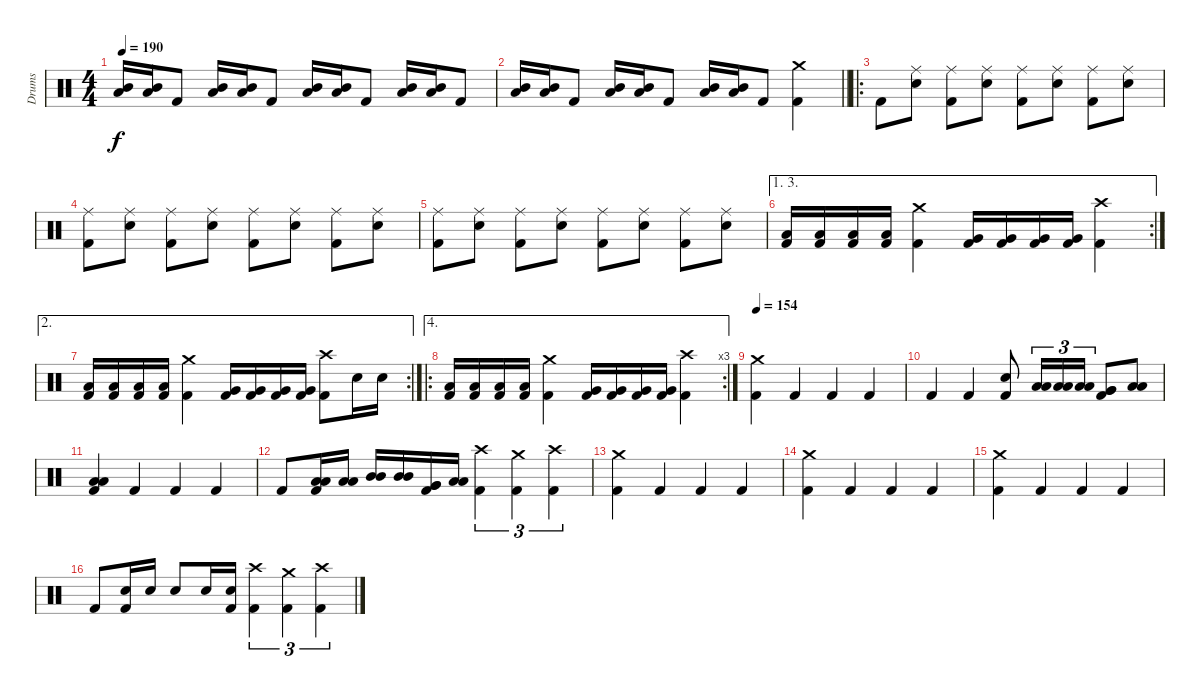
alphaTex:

\track ("Drums" "Drums") {instrument percussion}
\staff {score}
\articulation defaults
\ts (4 4)
\tempo 190
\clef neutral
\ks c
("Low Tom (hit)" "Mid Tom (hit)").16{dy f} ("Low Tom (hit)" "Mid Tom (hit)").16 "Kick (hit) 2".8 ("Low Tom (hit)" "Mid Tom (hit)").16 ("Low Tom (hit)" "Mid Tom (hit)").16 "Kick (hit) 2".8 ("Low Tom (hit)" "Mid Tom (hit)").16 ("Low Tom (hit)" "Mid Tom (hit)").16 "Kick (hit) 2".8 ("Low Tom (hit)" "Mid Tom (hit)").16 ("Low Tom (hit)" "Mid Tom (hit)").16 "Kick (hit) 2".8 |
\barLineRight lightlight
("Low Tom (hit)" "Mid Tom (hit)").16 ("Low Tom (hit)" "Mid Tom (hit)").16 "Kick (hit) 2".8 ("Low Tom (hit)" "Mid Tom (hit)").16 ("Low Tom (hit)" "Mid Tom (hit)").16 "Kick (hit) 2".8 ("Low Tom (hit)" "Mid Tom (hit)").16 ("Low Tom (hit)" "Mid Tom (hit)").16 "Kick (hit) 2".8 ("Crash medium (hit)" "Kick (hit) 2").4 |
\ro "Kick (hit) 2".8
("Ride (middle)" "Snare (hit) 2").8 ("Ride (middle)" "Kick (hit) 2").8 ("Ride (middle)" "Snare (hit) 2").8 ("Ride (middle)" "Kick (hit) 2").8 ("Ride (middle)" "Snare (hit) 2").8 ("Ride (middle)" "Kick (hit) 2").8 ("Ride (middle)" "Snare (hit) 2").8 |
("Ride (middle)" "Kick (hit) 2").8 ("Ride (middle)" "Snare (hit) 2").8 ("Ride (middle)" "Kick (hit) 2").8 ("Ride (middle)" "Snare (hit) 2").8 ("Ride (middle)" "Kick (hit) 2").8 ("Ride (middle)" "Snare (hit) 2").8 ("Ride (middle)" "Kick (hit) 2").8 ("Ride (middle)" "Snare (hit) 2").8 |
("Ride (middle)" "Kick (hit) 2").8 ("Ride (middle)" "Snare (hit) 2").8 ("Ride (middle)" "Kick (hit) 2").8 ("Ride (middle)" "Snare (hit) 2").8 ("Ride (middle)" "Kick (hit) 2").8 ("Ride (middle)" "Snare (hit) 2").8 ("Ride (middle)" "Kick (hit) 2").8 ("Ride (middle)" "Snare (hit) 2").8 |
\ae (1 3)
\rc 2
("Low Tom (hit)" "Kick (hit) 2").16 ("Low Tom (hit)" "Kick (hit) 2").16 ("Low Tom (hit)" "Kick (hit) 2").16 ("Low Tom (hit)" "Kick (hit) 2").16 ("Crash medium (hit)" "Kick (hit) 2").4 ("Very Low Tom (hit)" "Kick (hit) 2").16 ("Very Low Tom (hit)" "Kick (hit) 2").16 ("Very Low Tom (hit)" "Kick (hit) 2").16 ("Very Low Tom (hit)" "Kick (hit) 2").16 ("Crash high (hit)" "Kick (hit) 2").4 |
\ae 2
\rc 2
("Low Tom (hit)" "Kick (hit) 2").16 ("Low Tom (hit)" "Kick (hit) 2").16 ("Low Tom (hit)" "Kick (hit) 2").16 ("Low Tom (hit)" "Kick (hit) 2").16 ("Crash medium (hit)" "Kick (hit) 2").4 ("Very Low Tom (hit)" "Kick (hit) 2").16 ("Very Low Tom (hit)" "Kick (hit) 2").16 ("Very Low Tom (hit)" "Kick (hit) 2").16 ("Very Low Tom (hit)" "Kick (hit) 2").16 ("Crash high (hit)" "Kick (hit) 2").8 "Snare (hit) 2".16 "Snare (hit) 2".16 |
\ae 4
\ro
\rc 3
("Low Tom (hit)" "Kick (hit) 2").16 ("Low Tom (hit)" "Kick (hit) 2").16 ("Low Tom (hit)" "Kick (hit) 2").16 ("Low Tom (hit)" "Kick (hit) 2").16 ("Crash medium (hit)" "Kick (hit) 2").4 ("Very Low Tom (hit)" "Kick (hit) 2").16 ("Very Low Tom (hit)" "Kick (hit) 2").16 ("Very Low Tom (hit)" "Kick (hit) 2").16 ("Very Low Tom (hit)" "Kick (hit) 2").16 ("Crash high (hit)" "Kick (hit) 2").4 |
\tempo 154
("Crash medium (hit)" "Kick (hit) 2").4 "Kick (hit) 2".4 "Kick (hit) 2".4 "Kick (hit) 2".4 |
"Kick (hit) 2".4 "Kick (hit) 2".4 ("Snare (hit) 2" "Kick (hit) 2").8 ("Low Tom (hit)" "Low Tom (hit)").16{tu (3 2)} ("Low Tom (hit)" "Low Tom (hit)").16{tu (3 2)} ("Low Tom (hit)" "Low Tom (hit)").16{tu (3 2)} ("Very Low Tom (hit)" "Very Low Tom (hit)" "Kick (hit) 2").8 ("Low Floor Tom (hit)" "Low Floor Tom (hit)").8 |
("Low Floor Tom (hit)" "Low Floor Tom (hit)" "Kick (hit) 2").4 "Kick (hit) 2".4 "Kick (hit) 2".4 "Kick (hit) 2".4 |
"Kick (hit) 2".8 ("Low Tom (hit)" "Low Tom (hit)" "Kick (hit) 2").16 ("Low Tom (hit)" "Low Tom (hit)").16 ("Mid Tom (hit)" "Mid Tom (hit)").16 ("Mid Tom (hit)" "Mid Tom (hit)").16 ("Very Low Tom (hit)" "Very Low Tom (hit)" "Kick (hit) 2").16 ("Low Tom (hit)" "Low Tom (hit)").16 ("Crash high (hit)" "Kick (hit) 2").4{tu (3 2)} ("Crash medium (hit)" "Kick (hit) 2").4{tu (3 2)} ("Crash high (hit)" "Kick (hit) 2").4{tu (3 2)} |
("Crash medium (hit)" "Kick (hit) 2").4 "Kick (hit) 2".4 "Kick (hit) 2".4 "Kick (hit) 2".4 |
("Crash medium (hit)" "Kick (hit) 2").4 "Kick (hit) 2".4 "Kick (hit) 2".4 "Kick (hit) 2".4 |
("Crash medium (hit)" "Kick (hit) 2").4 "Kick (hit) 2".4 "Kick (hit) 2".4 "Kick (hit) 2".4 |
"Kick (hit) 2".8 ("Snare (hit) 2" "Kick (hit) 2").16 "Snare (hit) 2".16 "Snare (hit) 2".8 "Snare (hit) 2".16 ("Snare (hit) 2" "Kick (hit) 2").16 ("Crash high (hit)" "Kick (hit) 2").4{tu (3 2)} ("Crash medium (hit)" "Kick (hit) 2").4{tu (3 2)} ("Crash high (hit)" "Kick (hit) 2").4{tu (3 2)}
